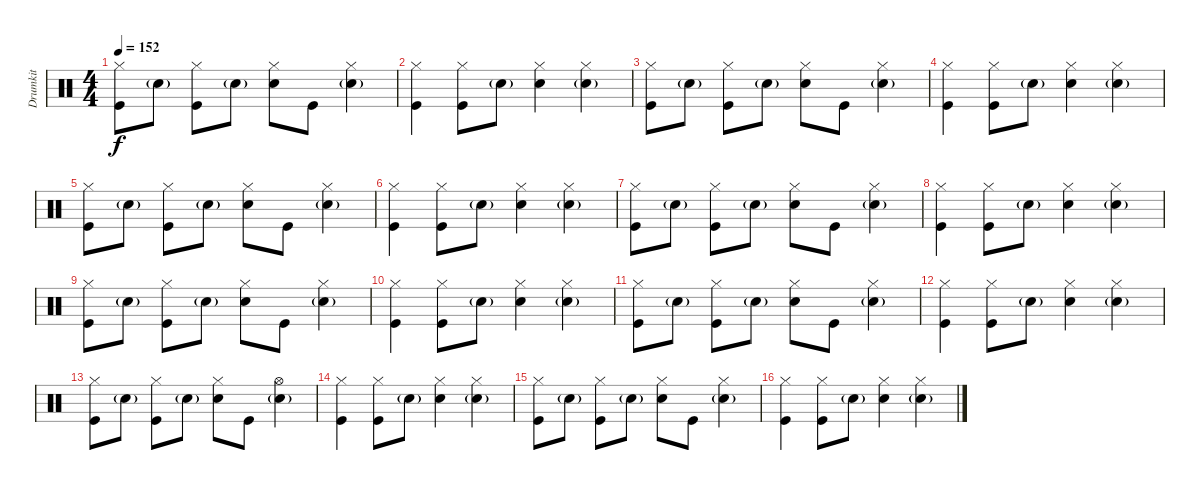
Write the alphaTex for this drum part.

\track ("Drumkit" "Drumkit") {instrument percussion}
\staff {score}
\articulation defaults
\ts (4 4)
\tempo 152
\clef neutral
\ks c
("Kick (hit)" "Hi-Hat (closed)").8{dy f} "Snare (hit) 2"{g}.8 ("Hi-Hat (closed)" "Kick (hit)").8 "Snare (hit) 2"{g}.8 ("Hi-Hat (closed)" "Snare (hit) 2").8 "Kick (hit)".8 ("Hi-Hat (closed)" "Snare (hit) 2"{g}).4 |
("Kick (hit)" "Hi-Hat (closed)").4 ("Hi-Hat (closed)" "Kick (hit)").8 "Snare (hit) 2"{g}.8 ("Hi-Hat (closed)" "Snare (hit) 2").4 ("Hi-Hat (closed)" "Snare (hit) 2"{g}).4 |
("Kick (hit)" "Hi-Hat (closed)").8 "Snare (hit) 2"{g}.8 ("Hi-Hat (closed)" "Kick (hit)").8 "Snare (hit) 2"{g}.8 ("Hi-Hat (closed)" "Snare (hit) 2").8 "Kick (hit)".8 ("Hi-Hat (closed)" "Snare (hit) 2"{g}).4 |
("Kick (hit)" "Hi-Hat (closed)").4 ("Hi-Hat (closed)" "Kick (hit)").8 "Snare (hit) 2"{g}.8 ("Hi-Hat (closed)" "Snare (hit) 2").4 ("Hi-Hat (closed)" "Snare (hit) 2"{g}).4 |
("Kick (hit)" "Hi-Hat (closed)").8 "Snare (hit) 2"{g}.8 ("Hi-Hat (closed)" "Kick (hit)").8 "Snare (hit) 2"{g}.8 ("Hi-Hat (closed)" "Snare (hit) 2").8 "Kick (hit)".8 ("Hi-Hat (closed)" "Snare (hit) 2"{g}).4 |
("Kick (hit)" "Hi-Hat (closed)").4 ("Hi-Hat (closed)" "Kick (hit)").8 "Snare (hit) 2"{g}.8 ("Hi-Hat (closed)" "Snare (hit) 2").4 ("Hi-Hat (closed)" "Snare (hit) 2"{g}).4 |
("Kick (hit)" "Hi-Hat (closed)").8 "Snare (hit) 2"{g}.8 ("Hi-Hat (closed)" "Kick (hit)").8 "Snare (hit) 2"{g}.8 ("Hi-Hat (closed)" "Snare (hit) 2").8 "Kick (hit)".8 ("Hi-Hat (closed)" "Snare (hit) 2"{g}).4 |
("Kick (hit)" "Hi-Hat (closed)").4 ("Hi-Hat (closed)" "Kick (hit)").8 "Snare (hit) 2"{g}.8 ("Hi-Hat (closed)" "Snare (hit) 2").4 ("Hi-Hat (closed)" "Snare (hit) 2"{g}).4 |
("Kick (hit)" "Hi-Hat (closed)").8 "Snare (hit) 2"{g}.8 ("Hi-Hat (closed)" "Kick (hit)").8 "Snare (hit) 2"{g}.8 ("Hi-Hat (closed)" "Snare (hit) 2").8 "Kick (hit)".8 ("Hi-Hat (closed)" "Snare (hit) 2"{g}).4 |
("Kick (hit)" "Hi-Hat (closed)").4 ("Hi-Hat (closed)" "Kick (hit)").8 "Snare (hit) 2"{g}.8 ("Hi-Hat (closed)" "Snare (hit) 2").4 ("Hi-Hat (closed)" "Snare (hit) 2"{g}).4 |
("Kick (hit)" "Hi-Hat (closed)").8 "Snare (hit) 2"{g}.8 ("Hi-Hat (closed)" "Kick (hit)").8 "Snare (hit) 2"{g}.8 ("Hi-Hat (closed)" "Snare (hit) 2").8 "Kick (hit)".8 ("Hi-Hat (closed)" "Snare (hit) 2"{g}).4 |
("Kick (hit)" "Hi-Hat (closed)").4 ("Hi-Hat (closed)" "Kick (hit)").8 "Snare (hit) 2"{g}.8 ("Hi-Hat (closed)" "Snare (hit) 2").4 ("Hi-Hat (closed)" "Snare (hit) 2"{g}).4 |
("Kick (hit)" "Hi-Hat (closed)").8 "Snare (hit) 2"{g}.8 ("Hi-Hat (closed)" "Kick (hit)").8 "Snare (hit) 2"{g}.8 ("Hi-Hat (closed)" "Snare (hit) 2").8 "Kick (hit)".8 ("Hi-Hat (open)" "Snare (hit) 2"{g}).4 |
("Kick (hit)" "Hi-Hat (closed)").4 ("Hi-Hat (closed)" "Kick (hit)").8 "Snare (hit) 2"{g}.8 ("Hi-Hat (closed)" "Snare (hit) 2").4 ("Hi-Hat (closed)" "Snare (hit) 2"{g}).4 |
("Kick (hit)" "Hi-Hat (closed)").8 "Snare (hit) 2"{g}.8 ("Hi-Hat (closed)" "Kick (hit)").8 "Snare (hit) 2"{g}.8 ("Hi-Hat (closed)" "Snare (hit) 2").8 "Kick (hit)".8 ("Hi-Hat (closed)" "Snare (hit) 2"{g}).4 |
("Kick (hit)" "Hi-Hat (closed)").4 ("Hi-Hat (closed)" "Kick (hit)").8 "Snare (hit) 2"{g}.8 ("Hi-Hat (closed)" "Snare (hit) 2").4 ("Hi-Hat (closed)" "Snare (hit) 2"{g}).4
